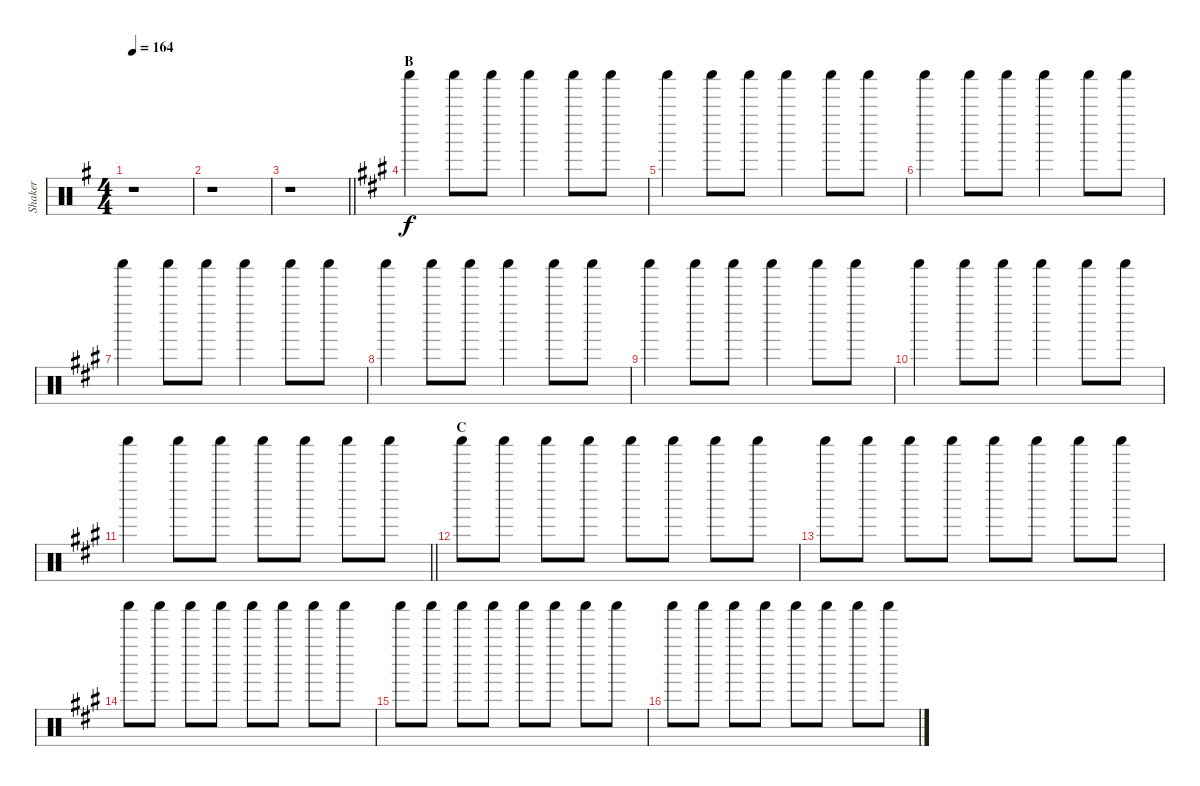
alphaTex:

\track ("Shaker" "Shaker") {instrument percussion}
\staff {score}
\articulation defaults
\ts (4 4)
\tempo 164
\clef neutral
\ks g
r.1{dy f} |
r.1 |
\barLineRight lightlight
r.1 |
\section ("" "B")
\ks a "Shaker (hit)".4 "Shaker (hit)".8 "Shaker (hit)".8 "Shaker (hit)".4 "Shaker (hit)".8 "Shaker (hit)".8
|
"Shaker (hit)".4 "Shaker (hit)".8 "Shaker (hit)".8 "Shaker (hit)".4 "Shaker (hit)".8 "Shaker (hit)".8 |
"Shaker (hit)".4 "Shaker (hit)".8 "Shaker (hit)".8 "Shaker (hit)".4 "Shaker (hit)".8 "Shaker (hit)".8 |
"Shaker (hit)".4 "Shaker (hit)".8 "Shaker (hit)".8 "Shaker (hit)".4 "Shaker (hit)".8 "Shaker (hit)".8 |
"Shaker (hit)".4 "Shaker (hit)".8 "Shaker (hit)".8 "Shaker (hit)".4 "Shaker (hit)".8 "Shaker (hit)".8 |
"Shaker (hit)".4 "Shaker (hit)".8 "Shaker (hit)".8 "Shaker (hit)".4 "Shaker (hit)".8 "Shaker (hit)".8 |
"Shaker (hit)".4 "Shaker (hit)".8 "Shaker (hit)".8 "Shaker (hit)".4 "Shaker (hit)".8 "Shaker (hit)".8 |
\barLineRight lightlight "Shaker (hit)".4 "Shaker (hit)".8 "Shaker (hit)".8 "Shaker (hit)".8 "Shaker (hit)".8 "Shaker (hit)".8 "Shaker (hit)".8
|
\section ("" "C")
"Shaker (hit)".8 "Shaker (hit)".8 "Shaker (hit)".8 "Shaker (hit)".8 "Shaker (hit)".8 "Shaker (hit)".8 "Shaker (hit)".8 "Shaker (hit)".8 |
"Shaker (hit)".8 "Shaker (hit)".8 "Shaker (hit)".8 "Shaker (hit)".8 "Shaker (hit)".8 "Shaker (hit)".8 "Shaker (hit)".8 "Shaker (hit)".8 |
"Shaker (hit)".8 "Shaker (hit)".8 "Shaker (hit)".8 "Shaker (hit)".8 "Shaker (hit)".8 "Shaker (hit)".8 "Shaker (hit)".8 "Shaker (hit)".8 |
"Shaker (hit)".8 "Shaker (hit)".8 "Shaker (hit)".8 "Shaker (hit)".8 "Shaker (hit)".8 "Shaker (hit)".8 "Shaker (hit)".8 "Shaker (hit)".8 |
"Shaker (hit)".8 "Shaker (hit)".8 "Shaker (hit)".8 "Shaker (hit)".8 "Shaker (hit)".8 "Shaker (hit)".8 "Shaker (hit)".8 "Shaker (hit)".8
